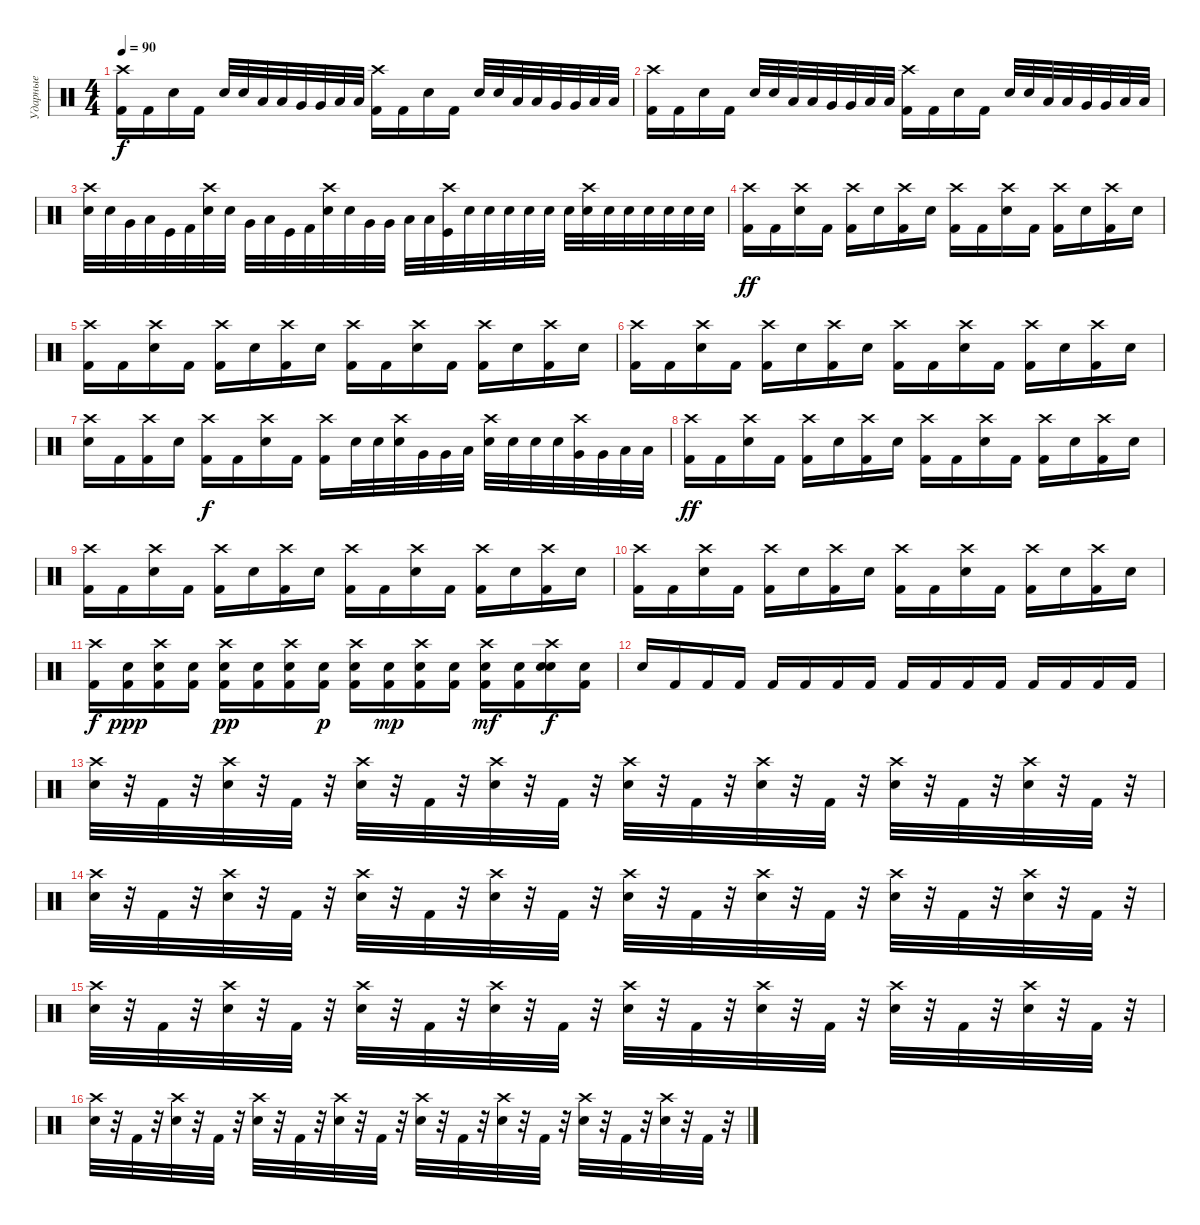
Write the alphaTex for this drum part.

\track ("Ударные" "Ударные") {instrument percussion}
\staff {score}
\articulation defaults
\ts (4 4)
\tempo 90
\clef neutral
\ks c
("Crash high (hit)" "Kick (hit) 2").16{dy f} "Kick (hit) 2".16 "Snare (hit) 2".16 "Kick (hit) 2".16 "Snare (hit) 2".32 "Snare (hit) 2".32 "Low Tom (hit)".32 "Low Tom (hit)".32 "Very Low Tom (hit)".32 "Very Low Tom (hit)".32 "Low Floor Tom (hit)".32 "Low Floor Tom (hit)".32 ("Crash high (hit)" "Kick (hit) 2").16 "Kick (hit) 2".16 "Snare (hit) 2".16 "Kick (hit) 2".16 "Snare (hit) 2".32 "Snare (hit) 2".32 "Low Tom (hit)".32 "Low Tom (hit)".32 "Very Low Tom (hit)".32 "Very Low Tom (hit)".32 "Low Floor Tom (hit)".32 "Low Floor Tom (hit)".32 |
("Crash high (hit)" "Kick (hit) 2").16 "Kick (hit) 2".16 "Snare (hit) 2".16 "Kick (hit) 2".16 "Snare (hit) 2".32 "Snare (hit) 2".32 "Low Tom (hit)".32 "Low Tom (hit)".32 "Very Low Tom (hit)".32 "Very Low Tom (hit)".32 "Low Floor Tom (hit)".32 "Low Floor Tom (hit)".32 ("Crash high (hit)" "Kick (hit) 2").16 "Kick (hit) 2".16 "Snare (hit) 2".16 "Kick (hit) 2".16 "Snare (hit) 2".32 "Snare (hit) 2".32 "Low Tom (hit)".32 "Low Tom (hit)".32 "Very Low Tom (hit)".32 "Very Low Tom (hit)".32 "Low Floor Tom (hit)".32 "Low Floor Tom (hit)".32 |
("Crash high (hit)" "Snare (hit) 2").32 "Snare (hit) 2".32 "Very Low Tom (hit)".32 "Low Floor Tom (hit)".32 "Kick (hit)".32 "Kick (hit) 2".32 ("Crash high (hit)" "Snare (hit) 2").32 "Snare (hit) 2".32 "Very Low Tom (hit)".32 "Low Floor Tom (hit)".32 "Kick (hit)".32 "Kick (hit) 2".32 ("Crash high (hit)" "Snare (hit) 2").32 "Snare (hit) 2".32 "Very Low Tom (hit)".32 "Very Low Tom (hit)".32 "Low Floor Tom (hit)".32 "Low Floor Tom (hit)".32 ("Crash high (hit)" "Kick (hit)").32 "Snare (hit) 2".32 "Snare (hit) 2".32 "Snare (hit) 2".32 "Snare (hit) 2".32 "Snare (hit) 2".32 "Snare (hit) 2".32 ("Crash high (hit)" "Snare (hit) 2").32 "Snare (hit) 2".32 "Snare (hit) 2".32 "Snare (hit) 2".32 "Snare (hit) 2".32 "Snare (hit) 2".32 "Snare (hit) 2".32 |
("Crash high (hit)" "Kick (hit) 2").16{dy ff} "Kick (hit) 2".16 ("Crash high (hit)" "Snare (hit) 2").16 "Kick (hit) 2".16 ("Crash high (hit)" "Kick (hit) 2").16 "Snare (hit) 2".16 ("Crash high (hit)" "Kick (hit) 2").16 "Snare (hit) 2".16 ("Crash high (hit)" "Kick (hit) 2").16 "Kick (hit) 2".16 ("Crash high (hit)" "Snare (hit) 2").16 "Kick (hit) 2".16 ("Crash high (hit)" "Kick (hit) 2").16 "Snare (hit) 2".16 ("Crash high (hit)" "Kick (hit) 2").16 "Snare (hit) 2".16 |
("Crash high (hit)" "Kick (hit) 2").16 "Kick (hit) 2".16 ("Crash high (hit)" "Snare (hit) 2").16 "Kick (hit) 2".16 ("Crash high (hit)" "Kick (hit) 2").16 "Snare (hit) 2".16 ("Crash high (hit)" "Kick (hit) 2").16 "Snare (hit) 2".16 ("Crash high (hit)" "Kick (hit) 2").16 "Kick (hit) 2".16 ("Crash high (hit)" "Snare (hit) 2").16 "Kick (hit) 2".16 ("Crash high (hit)" "Kick (hit) 2").16 "Snare (hit) 2".16 ("Crash high (hit)" "Kick (hit) 2").16 "Snare (hit) 2".16 |
("Crash high (hit)" "Kick (hit) 2").16 "Kick (hit) 2".16 ("Crash high (hit)" "Snare (hit) 2").16 "Kick (hit) 2".16 ("Crash high (hit)" "Kick (hit) 2").16 "Snare (hit) 2".16 ("Crash high (hit)" "Kick (hit) 2").16 "Snare (hit) 2".16 ("Crash high (hit)" "Kick (hit) 2").16 "Kick (hit) 2".16 ("Crash high (hit)" "Snare (hit) 2").16 "Kick (hit) 2".16 ("Crash high (hit)" "Kick (hit) 2").16 "Snare (hit) 2".16 ("Crash high (hit)" "Kick (hit) 2").16 "Snare (hit) 2".16 |
("Crash high (hit)" "Snare (hit) 2").16 "Kick (hit) 2".16 ("Crash high (hit)" "Kick (hit) 2").16 "Snare (hit) 2".16 ("Crash high (hit)" "Kick (hit) 2").16{dy f} "Kick (hit) 2".16 ("Crash high (hit)" "Snare (hit) 2").16 "Kick (hit) 2".16 ("Crash high (hit)" "Kick (hit) 2").16 "Snare (hit) 2".32 "Snare (hit) 2".32 ("Crash high (hit)" "Snare (hit) 2").32 "Very Low Tom (hit)".32 "Very Low Tom (hit)".32 "Low Floor Tom (hit)".32 ("Crash high (hit)" "Snare (hit) 2").32 "Snare (hit) 2".32 "Snare (hit) 2".32 "Snare (hit) 2".32 ("Crash high (hit)" "Very Low Tom (hit)").32 "Very Low Tom (hit)".32 "Low Floor Tom (hit)".32 "Low Floor Tom (hit)".32 |
("Crash high (hit)" "Kick (hit) 2").16{dy ff} "Kick (hit) 2".16 ("Crash high (hit)" "Snare (hit) 2").16 "Kick (hit) 2".16 ("Crash high (hit)" "Kick (hit) 2").16 "Snare (hit) 2".16 ("Crash high (hit)" "Kick (hit) 2").16 "Snare (hit) 2".16 ("Crash high (hit)" "Kick (hit) 2").16 "Kick (hit) 2".16 ("Crash high (hit)" "Snare (hit) 2").16 "Kick (hit) 2".16 ("Crash high (hit)" "Kick (hit) 2").16 "Snare (hit) 2".16 ("Crash high (hit)" "Kick (hit) 2").16 "Snare (hit) 2".16 |
("Crash high (hit)" "Kick (hit) 2").16 "Kick (hit) 2".16 ("Crash high (hit)" "Snare (hit) 2").16 "Kick (hit) 2".16 ("Crash high (hit)" "Kick (hit) 2").16 "Snare (hit) 2".16 ("Crash high (hit)" "Kick (hit) 2").16 "Snare (hit) 2".16 ("Crash high (hit)" "Kick (hit) 2").16 "Kick (hit) 2".16 ("Crash high (hit)" "Snare (hit) 2").16 "Kick (hit) 2".16 ("Crash high (hit)" "Kick (hit) 2").16 "Snare (hit) 2".16 ("Crash high (hit)" "Kick (hit) 2").16 "Snare (hit) 2".16 |
("Crash high (hit)" "Kick (hit) 2").16 "Kick (hit) 2".16 ("Crash high (hit)" "Snare (hit) 2").16 "Kick (hit) 2".16 ("Crash high (hit)" "Kick (hit) 2").16 "Snare (hit) 2".16 ("Crash high (hit)" "Kick (hit) 2").16 "Snare (hit) 2".16 ("Crash high (hit)" "Kick (hit) 2").16 "Kick (hit) 2".16 ("Crash high (hit)" "Snare (hit) 2").16 "Kick (hit) 2".16 ("Crash high (hit)" "Kick (hit) 2").16 "Snare (hit) 2".16 ("Crash high (hit)" "Kick (hit) 2").16 "Snare (hit) 2".16 |
("Crash high (hit)" "Kick (hit) 2").16{dy f} ("Snare (hit) 2" "Kick (hit) 2").16{dy ppp} ("Crash high (hit)" "Snare (hit) 2" "Kick (hit) 2").16 ("Snare (hit) 2" "Kick (hit) 2").16 ("Crash high (hit)" "Snare (hit) 2" "Kick (hit) 2").16{dy pp} ("Snare (hit) 2" "Kick (hit) 2").16 ("Crash high (hit)" "Snare (hit) 2" "Kick (hit) 2").16 ("Snare (hit) 2" "Kick (hit) 2").16{dy p} ("Crash high (hit)" "Snare (hit) 2" "Kick (hit) 2").16 ("Snare (hit) 2" "Kick (hit) 2").16{dy mp} ("Crash high (hit)" "Snare (hit) 2" "Kick (hit) 2").16 ("Snare (hit) 2" "Kick (hit) 2").16 ("Crash high (hit)" "Snare (hit) 2" "Kick (hit) 2").16{dy mf} ("Snare (hit) 2" "Kick (hit) 2").16 ("Crash high (hit)" "Snare (hit) 2" "Snare (hit) 2").16{dy f} ("Snare (hit) 2" "Kick (hit) 2").16 |
"Snare (hit) 2".16 "Kick (hit) 2".16 "Kick (hit) 2".16 "Kick (hit) 2".16 "Kick (hit) 2".16 "Kick (hit) 2".16 "Kick (hit) 2".16 "Kick (hit) 2".16 "Kick (hit) 2".16 "Kick (hit) 2".16 "Kick (hit) 2".16 "Kick (hit) 2".16 "Kick (hit) 2".16 "Kick (hit) 2".16 "Kick (hit) 2".16 "Kick (hit) 2".16 |
("Crash high (hit)" "Snare (hit) 2").32 r.32 "Kick (hit) 2".32 r.32 ("Crash high (hit)" "Snare (hit) 2").32 r.32 "Kick (hit) 2".32 r.32 ("Crash high (hit)" "Snare (hit) 2").32 r.32 "Kick (hit) 2".32 r.32 ("Crash high (hit)" "Snare (hit) 2").32 r.32 "Kick (hit) 2".32 r.32 ("Crash high (hit)" "Snare (hit) 2").32 r.32 "Kick (hit) 2".32 r.32 ("Crash high (hit)" "Snare (hit) 2").32 r.32 "Kick (hit) 2".32 r.32 ("Crash high (hit)" "Snare (hit) 2").32 r.32 "Kick (hit) 2".32 r.32 ("Crash high (hit)" "Snare (hit) 2").32 r.32 "Kick (hit) 2".32 r.32 |
("Crash high (hit)" "Snare (hit) 2").32 r.32 "Kick (hit) 2".32 r.32 ("Crash high (hit)" "Snare (hit) 2").32 r.32 "Kick (hit) 2".32 r.32 ("Crash high (hit)" "Snare (hit) 2").32 r.32 "Kick (hit) 2".32 r.32 ("Crash high (hit)" "Snare (hit) 2").32 r.32 "Kick (hit) 2".32 r.32 ("Crash high (hit)" "Snare (hit) 2").32 r.32 "Kick (hit) 2".32 r.32 ("Crash high (hit)" "Snare (hit) 2").32 r.32 "Kick (hit) 2".32 r.32 ("Crash high (hit)" "Snare (hit) 2").32 r.32 "Kick (hit) 2".32 r.32 ("Crash high (hit)" "Snare (hit) 2").32 r.32 "Kick (hit) 2".32 r.32 |
("Crash high (hit)" "Snare (hit) 2").32 r.32 "Kick (hit) 2".32 r.32 ("Crash high (hit)" "Snare (hit) 2").32 r.32 "Kick (hit) 2".32 r.32 ("Crash high (hit)" "Snare (hit) 2").32 r.32 "Kick (hit) 2".32 r.32 ("Crash high (hit)" "Snare (hit) 2").32 r.32 "Kick (hit) 2".32 r.32 ("Crash high (hit)" "Snare (hit) 2").32 r.32 "Kick (hit) 2".32 r.32 ("Crash high (hit)" "Snare (hit) 2").32 r.32 "Kick (hit) 2".32 r.32 ("Crash high (hit)" "Snare (hit) 2").32 r.32 "Kick (hit) 2".32 r.32 ("Crash high (hit)" "Snare (hit) 2").32 r.32 "Kick (hit) 2".32 r.32 |
("Crash high (hit)" "Snare (hit) 2").32 r.32 "Kick (hit) 2".32 r.32 ("Crash high (hit)" "Snare (hit) 2").32 r.32 "Kick (hit) 2".32 r.32 ("Crash high (hit)" "Snare (hit) 2").32 r.32 "Kick (hit) 2".32 r.32 ("Crash high (hit)" "Snare (hit) 2").32 r.32 "Kick (hit) 2".32 r.32 ("Crash high (hit)" "Snare (hit) 2").32 r.32 "Kick (hit) 2".32 r.32 ("Crash high (hit)" "Snare (hit) 2").32 r.32 "Kick (hit) 2".32 r.32 ("Crash high (hit)" "Snare (hit) 2").32 r.32 "Kick (hit) 2".32 r.32 ("Crash high (hit)" "Snare (hit) 2").32 r.32 "Kick (hit) 2".32 r.32
